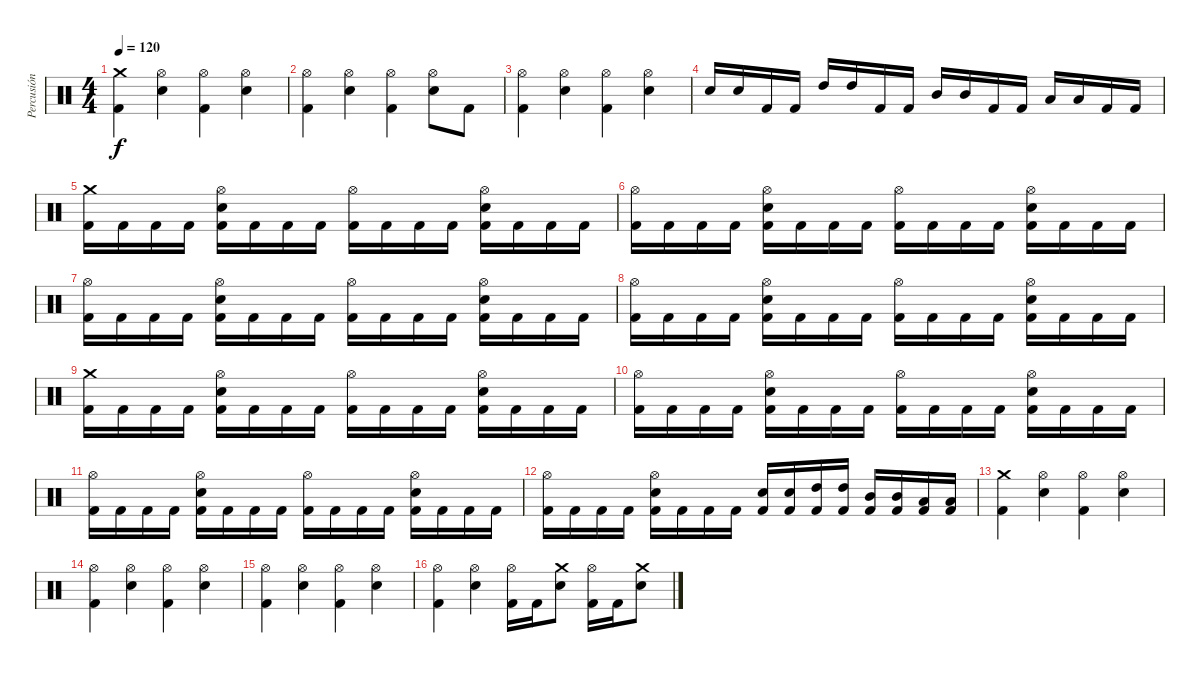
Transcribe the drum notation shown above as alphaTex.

\track ("Percusión" "Percusión") {instrument percussion}
\staff {score}
\articulation defaults
\ts (4 4)
\tempo 120
\clef neutral
\ks c
("Kick (hit) 2" "Crash medium (hit)").4{dy f} ("Electric Snare (hit)" "Hi-Hat (open)").4 ("Kick (hit) 2" "Hi-Hat (open)").4 ("Electric Snare (hit)" "Hi-Hat (open)").4 |
("Kick (hit) 2" "Hi-Hat (open)").4 ("Electric Snare (hit)" "Hi-Hat (open)").4 ("Kick (hit) 2" "Hi-Hat (open)").4 ("Electric Snare (hit)" "Hi-Hat (open)").8 "Kick (hit) 2".8 |
("Kick (hit) 2" "Hi-Hat (open)").4 ("Electric Snare (hit)" "Hi-Hat (open)").4 ("Kick (hit) 2" "Hi-Hat (open)").4 ("Electric Snare (hit)" "Hi-Hat (open)").4 |
"Electric Snare (hit)".16 "Electric Snare (hit)".16 "Kick (hit) 2".16 "Kick (hit) 2".16 "High Tom (hit)".16 "High Tom (hit)".16 "Kick (hit) 2".16 "Kick (hit) 2".16 "Mid Tom (hit)".16 "Mid Tom (hit)".16 "Kick (hit) 2".16 "Kick (hit) 2".16 "Low Tom (hit)".16 "Low Tom (hit)".16 "Kick (hit) 2".16 "Kick (hit) 2".16 |
("Kick (hit) 2" "Crash medium (hit)").16 "Kick (hit) 2".16 "Kick (hit) 2".16 "Kick (hit) 2".16 ("Kick (hit) 2" "Electric Snare (hit)" "Hi-Hat (open)").16 "Kick (hit) 2".16 "Kick (hit) 2".16 "Kick (hit) 2".16 ("Kick (hit) 2" "Hi-Hat (open)").16 "Kick (hit) 2".16 "Kick (hit) 2".16 "Kick (hit) 2".16 ("Kick (hit) 2" "Electric Snare (hit)" "Hi-Hat (open)").16 "Kick (hit) 2".16 "Kick (hit) 2".16 "Kick (hit) 2".16 |
("Kick (hit) 2" "Hi-Hat (open)").16 "Kick (hit) 2".16 "Kick (hit) 2".16 "Kick (hit) 2".16 ("Kick (hit) 2" "Electric Snare (hit)" "Hi-Hat (open)").16 "Kick (hit) 2".16 "Kick (hit) 2".16 "Kick (hit) 2".16 ("Kick (hit) 2" "Hi-Hat (open)").16 "Kick (hit) 2".16 "Kick (hit) 2".16 "Kick (hit) 2".16 ("Kick (hit) 2" "Electric Snare (hit)" "Hi-Hat (open)").16 "Kick (hit) 2".16 "Kick (hit) 2".16 "Kick (hit) 2".16 |
("Kick (hit) 2" "Hi-Hat (open)").16 "Kick (hit) 2".16 "Kick (hit) 2".16 "Kick (hit) 2".16 ("Kick (hit) 2" "Electric Snare (hit)" "Hi-Hat (open)").16 "Kick (hit) 2".16 "Kick (hit) 2".16 "Kick (hit) 2".16 ("Kick (hit) 2" "Hi-Hat (open)").16 "Kick (hit) 2".16 "Kick (hit) 2".16 "Kick (hit) 2".16 ("Kick (hit) 2" "Electric Snare (hit)" "Hi-Hat (open)").16 "Kick (hit) 2".16 "Kick (hit) 2".16 "Kick (hit) 2".16 |
("Kick (hit) 2" "Hi-Hat (open)").16 "Kick (hit) 2".16 "Kick (hit) 2".16 "Kick (hit) 2".16 ("Kick (hit) 2" "Electric Snare (hit)" "Hi-Hat (open)").16 "Kick (hit) 2".16 "Kick (hit) 2".16 "Kick (hit) 2".16 ("Kick (hit) 2" "Hi-Hat (open)").16 "Kick (hit) 2".16 "Kick (hit) 2".16 "Kick (hit) 2".16 ("Kick (hit) 2" "Electric Snare (hit)" "Hi-Hat (open)").16 "Kick (hit) 2".16 "Kick (hit) 2".16 "Kick (hit) 2".16 |
("Kick (hit) 2" "Crash medium (hit)").16 "Kick (hit) 2".16 "Kick (hit) 2".16 "Kick (hit) 2".16 ("Kick (hit) 2" "Electric Snare (hit)" "Hi-Hat (open)").16 "Kick (hit) 2".16 "Kick (hit) 2".16 "Kick (hit) 2".16 ("Kick (hit) 2" "Hi-Hat (open)").16 "Kick (hit) 2".16 "Kick (hit) 2".16 "Kick (hit) 2".16 ("Kick (hit) 2" "Electric Snare (hit)" "Hi-Hat (open)").16 "Kick (hit) 2".16 "Kick (hit) 2".16 "Kick (hit) 2".16 |
("Kick (hit) 2" "Hi-Hat (open)").16 "Kick (hit) 2".16 "Kick (hit) 2".16 "Kick (hit) 2".16 ("Kick (hit) 2" "Electric Snare (hit)" "Hi-Hat (open)").16 "Kick (hit) 2".16 "Kick (hit) 2".16 "Kick (hit) 2".16 ("Kick (hit) 2" "Hi-Hat (open)").16 "Kick (hit) 2".16 "Kick (hit) 2".16 "Kick (hit) 2".16 ("Kick (hit) 2" "Electric Snare (hit)" "Hi-Hat (open)").16 "Kick (hit) 2".16 "Kick (hit) 2".16 "Kick (hit) 2".16 |
("Kick (hit) 2" "Hi-Hat (open)").16 "Kick (hit) 2".16 "Kick (hit) 2".16 "Kick (hit) 2".16 ("Kick (hit) 2" "Electric Snare (hit)" "Hi-Hat (open)").16 "Kick (hit) 2".16 "Kick (hit) 2".16 "Kick (hit) 2".16 ("Kick (hit) 2" "Hi-Hat (open)").16 "Kick (hit) 2".16 "Kick (hit) 2".16 "Kick (hit) 2".16 ("Kick (hit) 2" "Electric Snare (hit)" "Hi-Hat (open)").16 "Kick (hit) 2".16 "Kick (hit) 2".16 "Kick (hit) 2".16 |
("Kick (hit) 2" "Hi-Hat (open)").16 "Kick (hit) 2".16 "Kick (hit) 2".16 "Kick (hit) 2".16 ("Kick (hit) 2" "Electric Snare (hit)" "Hi-Hat (open)").16 "Kick (hit) 2".16 "Kick (hit) 2".16 "Kick (hit) 2".16 ("Kick (hit) 2" "Electric Snare (hit)").16 ("Kick (hit) 2" "Electric Snare (hit)").16 ("Kick (hit) 2" "High Tom (hit)").16 ("Kick (hit) 2" "High Tom (hit)").16 ("Kick (hit) 2" "Mid Tom (hit)").16 ("Kick (hit) 2" "Mid Tom (hit)").16 ("Kick (hit) 2" "Low Tom (hit)").16 ("Kick (hit) 2" "Low Tom (hit)").16 |
("Kick (hit) 2" "Crash medium (hit)").4 ("Electric Snare (hit)" "Hi-Hat (open)").4 ("Kick (hit) 2" "Hi-Hat (open)").4 ("Electric Snare (hit)" "Hi-Hat (open)").4 |
("Kick (hit) 2" "Hi-Hat (open)").4 ("Electric Snare (hit)" "Hi-Hat (open)").4 ("Kick (hit) 2" "Hi-Hat (open)").4 ("Electric Snare (hit)" "Hi-Hat (open)").4 |
("Kick (hit) 2" "Hi-Hat (open)").4 ("Electric Snare (hit)" "Hi-Hat (open)").4 ("Kick (hit) 2" "Hi-Hat (open)").4 ("Electric Snare (hit)" "Hi-Hat (open)").4 |
("Kick (hit) 2" "Hi-Hat (open)").4 ("Electric Snare (hit)" "Hi-Hat (open)").4 ("Kick (hit) 2" "Hi-Hat (open)").16 "Kick (hit) 2".16 ("Electric Snare (hit)" "Crash medium (hit)").8 ("Kick (hit) 2" "Hi-Hat (open)").16 "Kick (hit) 2".16 ("Electric Snare (hit)" "Crash medium (hit)").8
